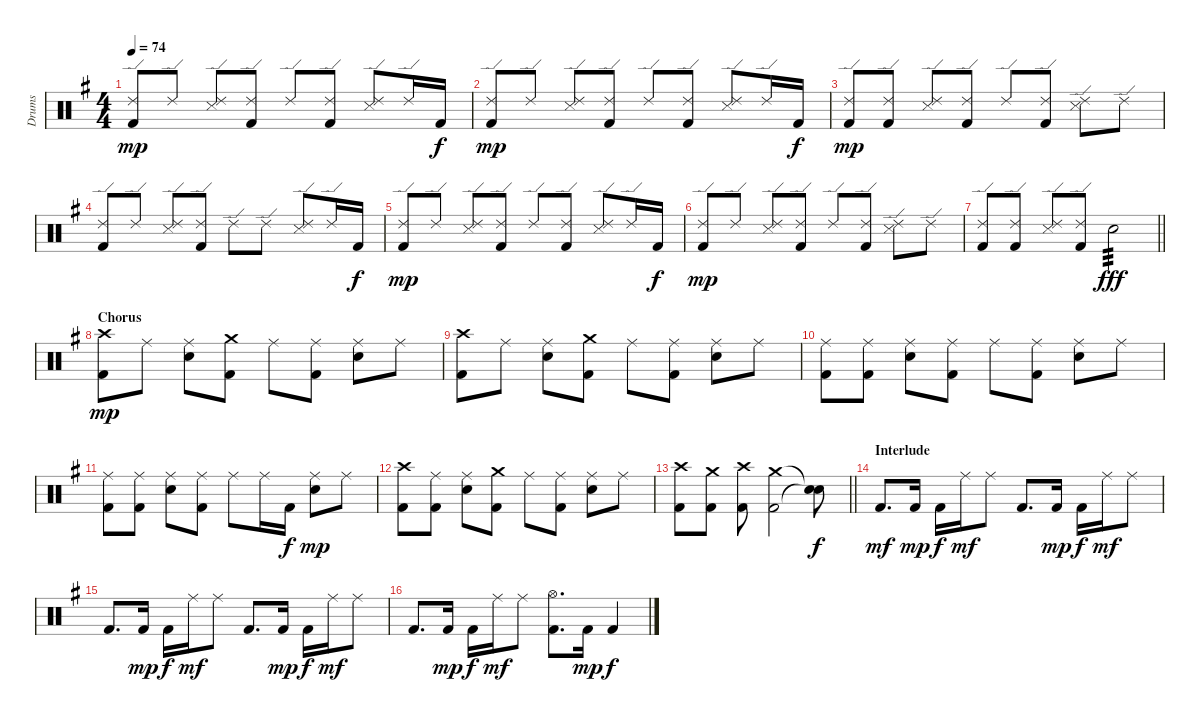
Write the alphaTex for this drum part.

\track ("Drums" "Drums") {instrument percussion}
\staff {score}
\articulation defaults
\ts (4 4)
\tempo 74
\clef neutral
\ks g
("Kick (hit) 2" "Ride (edge) 2").8{dy mp} "Ride (edge) 2".8 ("Snare (side stick) 3" "Ride (edge) 2").8 ("Kick (hit) 2" "Ride (edge) 2").8 "Ride (edge) 2".8 ("Kick (hit) 2" "Ride (edge) 2").8 ("Snare (side stick) 3" "Ride (edge) 2").8 "Ride (edge) 2".16 "Kick (hit) 2".16{dy f} |
("Kick (hit) 2" "Ride (edge) 2").8{dy mp} "Ride (edge) 2".8 ("Snare (side stick) 3" "Ride (edge) 2").8 ("Kick (hit) 2" "Ride (edge) 2").8 "Ride (edge) 2".8 ("Kick (hit) 2" "Ride (edge) 2").8 ("Snare (side stick) 3" "Ride (edge) 2").8 "Ride (edge) 2".16 "Kick (hit) 2".16{dy f} |
("Kick (hit) 2" "Ride (edge) 2").8{dy mp} ("Kick (hit) 2" "Ride (edge) 2").8 ("Snare (side stick) 3" "Ride (edge) 2").8 ("Kick (hit) 2" "Ride (edge) 2").8 "Ride (edge) 2".8 ("Kick (hit) 2" "Ride (edge) 2").8 ("Snare (side stick) 3" "Ride (edge) 2").8 "Ride (edge) 2".8 |
("Kick (hit) 2" "Ride (edge) 2").8 "Ride (edge) 2".8 ("Snare (side stick) 3" "Ride (edge) 2").8 ("Kick (hit) 2" "Ride (edge) 2").8 "Ride (edge) 2".8 "Ride (edge) 2".8 ("Snare (side stick) 3" "Ride (edge) 2").8 "Ride (edge) 2".16 "Kick (hit) 2".16{dy f} |
("Kick (hit) 2" "Ride (edge) 2").8{dy mp} "Ride (edge) 2".8 ("Snare (side stick) 3" "Ride (edge) 2").8 ("Kick (hit) 2" "Ride (edge) 2").8 "Ride (edge) 2".8 ("Kick (hit) 2" "Ride (edge) 2").8 ("Snare (side stick) 3" "Ride (edge) 2").8 "Ride (edge) 2".16 "Kick (hit) 2".16{dy f} |
("Kick (hit) 2" "Ride (edge) 2").8{dy mp} "Ride (edge) 2".8 ("Snare (side stick) 3" "Ride (edge) 2").8 ("Kick (hit) 2" "Ride (edge) 2").8 "Ride (edge) 2".8 ("Kick (hit) 2" "Ride (edge) 2").8 ("Snare (side stick) 3" "Ride (edge) 2").8 "Ride (edge) 2".8 |
\barLineRight lightlight
("Kick (hit) 2" "Ride (edge) 2").8 ("Kick (hit) 2" "Ride (edge) 2").8 ("Snare (side stick) 3" "Ride (edge) 2").8 ("Kick (hit) 2" "Ride (edge) 2").8 "Electric Snare (hit)".2{tp 3 dy fff} |
\section ("" "Chorus")
("Kick (hit) 2" "Crash high (hit)").8{dy mp} "Ride (middle)".8 ("Electric Snare (hit)" "Ride (middle)").8 ("Kick (hit) 2" "Crash medium (hit)").8 "Ride (middle)".8 ("Kick (hit) 2" "Ride (middle)").8 ("Electric Snare (hit)" "Ride (middle)").8 "Ride (middle)".8 |
("Kick (hit) 2" "Crash high (hit)").8 "Ride (middle)".8 ("Electric Snare (hit)" "Ride (middle)").8 ("Kick (hit) 2" "Crash medium (hit)").8 "Ride (middle)".8 ("Kick (hit) 2" "Ride (middle)").8 ("Electric Snare (hit)" "Ride (middle)").8 "Ride (middle)".8 |
("Kick (hit) 2" "Ride (middle)").8 ("Kick (hit) 2" "Ride (middle)").8 ("Electric Snare (hit)" "Ride (middle)").8 ("Kick (hit) 2" "Ride (middle)").8 "Ride (middle)".8 ("Kick (hit) 2" "Ride (middle)").8 ("Electric Snare (hit)" "Ride (middle)").8 "Ride (middle)".8 |
("Kick (hit) 2" "Ride (middle)").8 ("Kick (hit) 2" "Ride (middle)").8 ("Electric Snare (hit)" "Ride (middle)").8 ("Kick (hit) 2" "Ride (middle)").8 "Ride (middle)".8 "Ride (middle)".16 "Kick (hit) 2".16{dy f} ("Electric Snare (hit)" "Ride (middle)").8{dy mp} "Ride (middle)".8 |
("Kick (hit) 2" "Crash high (hit)").8 ("Kick (hit) 2" "Ride (middle)").8 ("Electric Snare (hit)" "Ride (middle)").8 ("Kick (hit) 2" "Crash medium (hit)").8 "Ride (middle)".8 ("Kick (hit) 2" "Ride (middle)").8 ("Electric Snare (hit)" "Ride (middle)").8 "Ride (middle)".8 |
\barLineRight lightlight
("Kick (hit) 2" "Crash high (hit)").8 ("Kick (hit) 2" "Crash medium (hit)").8 ("Kick (hit) 2" "Crash high (hit)").8 ("Kick (hit) 2" "Crash medium (hit)").2 ("Snare (hit)"{t} "Snare (hit)"{t}).8{dy f} |
\section ("" "Interlude")
"Kick (hit) 2".8{d dy mf} "Kick (hit) 2".16{dy mp} "Kick (hit) 2".16{dy f} "Ride (middle)".16{dy mf} "Ride (middle)".8 "Kick (hit) 2".8{d} "Kick (hit) 2".16{dy mp} "Kick (hit) 2".16{dy f} "Ride (middle)".16{dy mf} "Ride (middle)".8 |
"Kick (hit) 2".8{d} "Kick (hit) 2".16{dy mp} "Kick (hit) 2".16{dy f} "Ride (middle)".16{dy mf} "Ride (middle)".8 "Kick (hit) 2".8{d} "Kick (hit) 2".16{dy mp} "Kick (hit) 2".16{dy f} "Ride (middle)".16{dy mf} "Ride (middle)".8 |
"Kick (hit) 2".8{d} "Kick (hit) 2".16{dy mp} "Kick (hit) 2".16{dy f} "Ride (middle)".16{dy mf} "Ride (middle)".8 ("Kick (hit) 2" "Hi-Hat (open)").8{d} "Kick (hit) 2".16{dy mp} "Kick (hit) 2".4{dy f}
